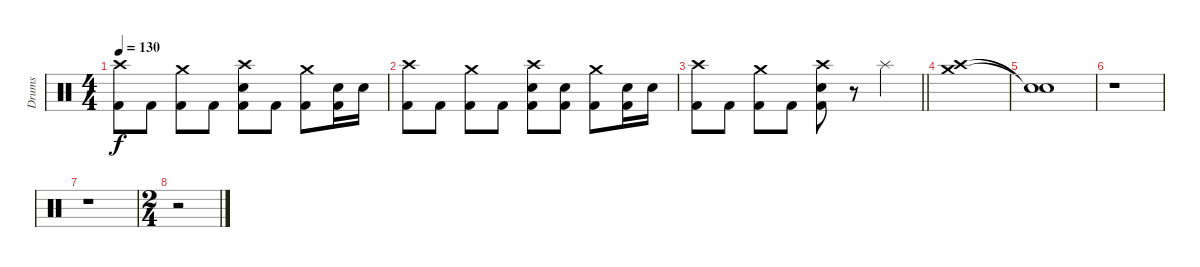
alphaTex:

\track ("Drums" "Drums") {instrument percussion}
\staff {score}
\articulation defaults
\ts (4 4)
\tempo 130
\clef neutral
\ks c
("Crash high (hit)" "Kick (hit) 2").8{dy f} "Kick (hit) 2".8 ("Crash medium (hit)" "Kick (hit) 2").8 "Kick (hit) 2".8 ("Crash high (hit)" "Electric Snare (hit)" "Kick (hit) 2").8 "Kick (hit) 2".8 ("Crash medium (hit)" "Kick (hit) 2").8 ("Electric Snare (hit)" "Kick (hit) 2").16 "Electric Snare (hit)".16 |
("Crash high (hit)" "Kick (hit) 2").8 "Kick (hit) 2".8 ("Crash medium (hit)" "Kick (hit) 2").8 "Kick (hit) 2".8 ("Crash high (hit)" "Electric Snare (hit)" "Kick (hit) 2").8 ("Electric Snare (hit)" "Kick (hit) 2").8 ("Crash medium (hit)" "Kick (hit) 2").8 ("Electric Snare (hit)" "Kick (hit) 2").16 "Electric Snare (hit)".16 |
\barLineRight lightlight
("Crash high (hit)" "Kick (hit) 2").8 "Kick (hit) 2".8 ("Crash medium (hit)" "Kick (hit) 2").8 "Kick (hit) 2".8 ("Crash high (hit)" "Electric Snare (hit)" "Kick (hit) 2").8 r.8 "Splash (hit)".4 |
("Crash high (hit)" "Crash medium (hit)").1 |
("Snare (hit)"{t} "Snare (hit)"{t}).1 |
r.1 |
r.1 |
\ts (2 4)
r.2
